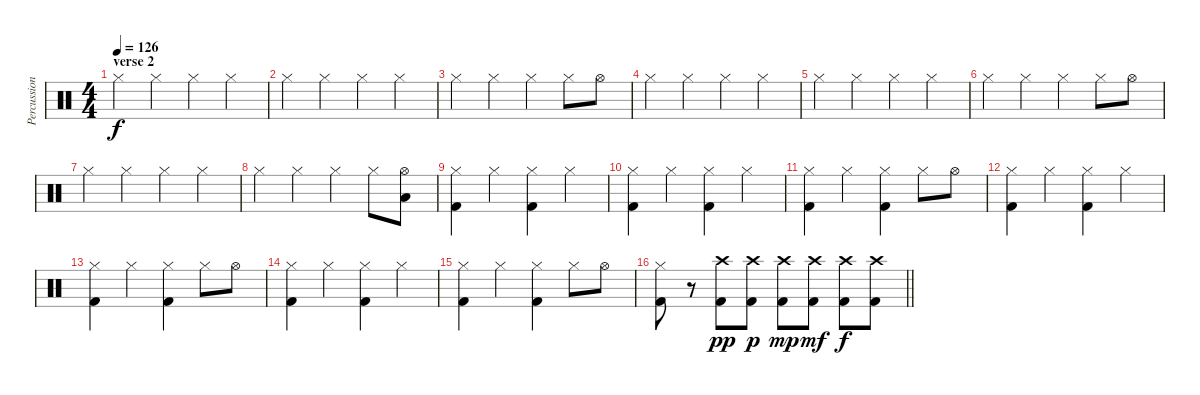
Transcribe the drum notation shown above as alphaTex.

\track ("Percussion" "Percussion") {instrument percussion}
\staff {score}
\articulation defaults
\ts (4 4)
\section ("" "verse 2")
\tempo 126
\clef neutral
\ks c "Hi-Hat (closed)".4{dy f} "Hi-Hat (closed)".4 "Hi-Hat (closed)".4 "Hi-Hat (closed)".4
|
"Hi-Hat (closed)".4 "Hi-Hat (closed)".4 "Hi-Hat (closed)".4 "Hi-Hat (closed)".4 |
"Hi-Hat (closed)".4 "Hi-Hat (closed)".4 "Hi-Hat (closed)".4 "Hi-Hat (closed)".8 "Hi-Hat (open)".8 |
"Hi-Hat (closed)".4 "Hi-Hat (closed)".4 "Hi-Hat (closed)".4 "Hi-Hat (closed)".4 |
"Hi-Hat (closed)".4 "Hi-Hat (closed)".4 "Hi-Hat (closed)".4 "Hi-Hat (closed)".4 |
"Hi-Hat (closed)".4 "Hi-Hat (closed)".4 "Hi-Hat (closed)".4 "Hi-Hat (closed)".8 "Hi-Hat (open)".8 |
"Hi-Hat (closed)".4 "Hi-Hat (closed)".4 "Hi-Hat (closed)".4 "Hi-Hat (closed)".4 |
"Hi-Hat (closed)".4 "Hi-Hat (closed)".4 "Hi-Hat (closed)".4 "Hi-Hat (closed)".8 ("Hi-Hat (open)" "Low Floor Tom (hit)").8 |
("Hi-Hat (closed)" "Kick (hit) 2").4 "Hi-Hat (closed)".4 ("Hi-Hat (closed)" "Kick (hit) 2").4 "Hi-Hat (closed)".4 |
("Hi-Hat (closed)" "Kick (hit) 2").4 "Hi-Hat (closed)".4 ("Hi-Hat (closed)" "Kick (hit) 2").4 "Hi-Hat (closed)".4 |
("Hi-Hat (closed)" "Kick (hit) 2").4 "Hi-Hat (closed)".4 ("Hi-Hat (closed)" "Kick (hit) 2").4 "Hi-Hat (closed)".8 "Hi-Hat (open)".8 |
("Hi-Hat (closed)" "Kick (hit) 2").4 "Hi-Hat (closed)".4 ("Hi-Hat (closed)" "Kick (hit) 2").4 "Hi-Hat (closed)".4 |
("Hi-Hat (closed)" "Kick (hit) 2").4 "Hi-Hat (closed)".4 ("Hi-Hat (closed)" "Kick (hit) 2").4 "Hi-Hat (closed)".8 "Hi-Hat (open)".8 |
("Hi-Hat (closed)" "Kick (hit) 2").4 "Hi-Hat (closed)".4 ("Hi-Hat (closed)" "Kick (hit) 2").4 "Hi-Hat (closed)".4 |
("Hi-Hat (closed)" "Kick (hit) 2").4 "Hi-Hat (closed)".4 ("Hi-Hat (closed)" "Kick (hit) 2").4 "Hi-Hat (closed)".8 "Hi-Hat (open)".8 |
\barLineRight lightlight
("Hi-Hat (closed)" "Kick (hit) 2").8 r.8 ("Kick (hit) 2" "Crash high (hit)").8{dy pp} ("Kick (hit) 2" "Crash high (hit)").8{dy p} ("Kick (hit) 2" "Crash high (hit)").8{dy mp} ("Kick (hit) 2" "Crash high (hit)").8{dy mf} ("Kick (hit) 2" "Crash high (hit)").8{dy f} ("Kick (hit) 2" "Crash high (hit)").8
